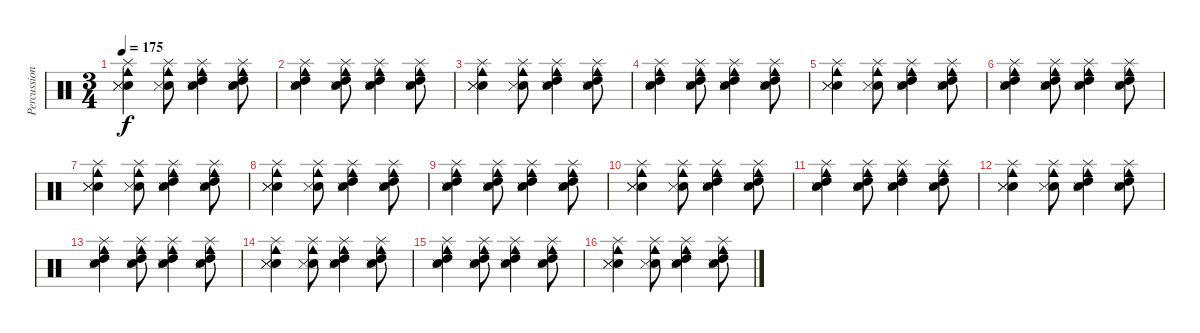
\track ("Percussion" "Percussion") {instrument percussion}
\staff {score}
\articulation defaults
\ts (3 4)
\tempo 175
\clef neutral
\ks c
("Snare (hit) 2" "Snare (side stick) 3" "Snare (side stick) 3" "Splash (hit)" "Cowbell medium (hit)").4{dy f} ("Snare (hit) 2" "Snare (side stick) 3" "Splash (hit)" "Cowbell medium (hit)").8 ("Snare (hit) 2" "Snare (side stick) 3" "High Tom (hit)" "Splash (hit)" "Cowbell medium (hit)").4 ("Snare (hit) 2" "Snare (side stick) 3" "High Tom (hit)" "Splash (hit)" "Cowbell medium (hit)").8 |
("Snare (hit) 2" "Snare (side stick) 3" "High Tom (hit)" "Splash (hit)" "Cowbell medium (hit)").4 ("Snare (hit) 2" "Snare (side stick) 3" "High Tom (hit)" "Splash (hit)" "Cowbell medium (hit)").8 ("Snare (hit) 2" "Snare (side stick) 3" "High Tom (hit)" "Splash (hit)" "Cowbell medium (hit)").4 ("Snare (hit) 2" "Snare (side stick) 3" "High Tom (hit)" "Splash (hit)" "Cowbell medium (hit)").8 |
("Snare (hit) 2" "Snare (side stick) 3" "Snare (side stick) 3" "Splash (hit)" "Cowbell medium (hit)").4 ("Snare (hit) 2" "Snare (side stick) 3" "Splash (hit)" "Cowbell medium (hit)").8 ("Snare (hit) 2" "Snare (side stick) 3" "High Tom (hit)" "Splash (hit)" "Cowbell medium (hit)").4 ("Snare (hit) 2" "Snare (side stick) 3" "High Tom (hit)" "Splash (hit)" "Cowbell medium (hit)").8 |
("Snare (hit) 2" "Snare (side stick) 3" "High Tom (hit)" "Splash (hit)" "Cowbell medium (hit)").4 ("Snare (hit) 2" "Snare (side stick) 3" "High Tom (hit)" "Splash (hit)" "Cowbell medium (hit)").8 ("Snare (hit) 2" "Snare (side stick) 3" "High Tom (hit)" "Splash (hit)" "Cowbell medium (hit)").4 ("Snare (hit) 2" "Snare (side stick) 3" "High Tom (hit)" "Splash (hit)" "Cowbell medium (hit)").8 |
("Snare (hit) 2" "Snare (side stick) 3" "Snare (side stick) 3" "Splash (hit)" "Cowbell medium (hit)").4 ("Snare (hit) 2" "Snare (side stick) 3" "Splash (hit)" "Cowbell medium (hit)").8 ("Snare (hit) 2" "Snare (side stick) 3" "High Tom (hit)" "Splash (hit)" "Cowbell medium (hit)").4 ("Snare (hit) 2" "Snare (side stick) 3" "High Tom (hit)" "Splash (hit)" "Cowbell medium (hit)").8 |
("Snare (hit) 2" "Snare (side stick) 3" "High Tom (hit)" "Splash (hit)" "Cowbell medium (hit)").4 ("Snare (hit) 2" "Snare (side stick) 3" "High Tom (hit)" "Splash (hit)" "Cowbell medium (hit)").8 ("Snare (hit) 2" "Snare (side stick) 3" "High Tom (hit)" "Splash (hit)" "Cowbell medium (hit)").4 ("Snare (hit) 2" "Snare (side stick) 3" "High Tom (hit)" "Splash (hit)" "Cowbell medium (hit)").8 |
("Snare (hit) 2" "Snare (side stick) 3" "Snare (side stick) 3" "Splash (hit)" "Cowbell medium (hit)").4 ("Snare (hit) 2" "Snare (side stick) 3" "Splash (hit)" "Cowbell medium (hit)").8 ("Snare (hit) 2" "Snare (side stick) 3" "High Tom (hit)" "Splash (hit)" "Cowbell medium (hit)").4 ("Snare (hit) 2" "Snare (side stick) 3" "High Tom (hit)" "Splash (hit)" "Cowbell medium (hit)").8 |
("Snare (hit) 2" "Snare (side stick) 3" "Snare (side stick) 3" "Splash (hit)" "Cowbell medium (hit)").4 ("Snare (hit) 2" "Snare (side stick) 3" "Splash (hit)" "Cowbell medium (hit)").8 ("Snare (hit) 2" "Snare (side stick) 3" "High Tom (hit)" "Splash (hit)" "Cowbell medium (hit)").4 ("Snare (hit) 2" "Snare (side stick) 3" "High Tom (hit)" "Splash (hit)" "Cowbell medium (hit)").8 |
("Snare (hit) 2" "Snare (side stick) 3" "High Tom (hit)" "Splash (hit)" "Cowbell medium (hit)").4 ("Snare (hit) 2" "Snare (side stick) 3" "High Tom (hit)" "Splash (hit)" "Cowbell medium (hit)").8 ("Snare (hit) 2" "Snare (side stick) 3" "High Tom (hit)" "Splash (hit)" "Cowbell medium (hit)").4 ("Snare (hit) 2" "Snare (side stick) 3" "High Tom (hit)" "Splash (hit)" "Cowbell medium (hit)").8 |
("Snare (hit) 2" "Snare (side stick) 3" "Snare (side stick) 3" "Splash (hit)" "Cowbell medium (hit)").4 ("Snare (hit) 2" "Snare (side stick) 3" "Splash (hit)" "Cowbell medium (hit)").8 ("Snare (hit) 2" "Snare (side stick) 3" "High Tom (hit)" "Splash (hit)" "Cowbell medium (hit)").4 ("Snare (hit) 2" "Snare (side stick) 3" "High Tom (hit)" "Splash (hit)" "Cowbell medium (hit)").8 |
("Snare (hit) 2" "Snare (side stick) 3" "High Tom (hit)" "Splash (hit)" "Cowbell medium (hit)").4 ("Snare (hit) 2" "Snare (side stick) 3" "High Tom (hit)" "Splash (hit)" "Cowbell medium (hit)").8 ("Snare (hit) 2" "Snare (side stick) 3" "High Tom (hit)" "Splash (hit)" "Cowbell medium (hit)").4 ("Snare (hit) 2" "Snare (side stick) 3" "High Tom (hit)" "Splash (hit)" "Cowbell medium (hit)").8 |
("Snare (hit) 2" "Snare (side stick) 3" "Snare (side stick) 3" "Splash (hit)" "Cowbell medium (hit)").4 ("Snare (hit) 2" "Snare (side stick) 3" "Splash (hit)" "Cowbell medium (hit)").8 ("Snare (hit) 2" "Snare (side stick) 3" "High Tom (hit)" "Splash (hit)" "Cowbell medium (hit)").4 ("Snare (hit) 2" "Snare (side stick) 3" "High Tom (hit)" "Splash (hit)" "Cowbell medium (hit)").8 |
("Snare (hit) 2" "Snare (side stick) 3" "High Tom (hit)" "Splash (hit)" "Cowbell medium (hit)").4 ("Snare (hit) 2" "Snare (side stick) 3" "High Tom (hit)" "Splash (hit)" "Cowbell medium (hit)").8 ("Snare (hit) 2" "Snare (side stick) 3" "High Tom (hit)" "Splash (hit)" "Cowbell medium (hit)").4 ("Snare (hit) 2" "Snare (side stick) 3" "High Tom (hit)" "Splash (hit)" "Cowbell medium (hit)").8 |
("Snare (hit) 2" "Snare (side stick) 3" "Snare (side stick) 3" "Splash (hit)" "Cowbell medium (hit)").4 ("Snare (hit) 2" "Snare (side stick) 3" "Splash (hit)" "Cowbell medium (hit)").8 ("Snare (hit) 2" "Snare (side stick) 3" "High Tom (hit)" "Splash (hit)" "Cowbell medium (hit)").4 ("Snare (hit) 2" "Snare (side stick) 3" "High Tom (hit)" "Splash (hit)" "Cowbell medium (hit)").8 |
("Snare (hit) 2" "Snare (side stick) 3" "High Tom (hit)" "Splash (hit)" "Cowbell medium (hit)").4 ("Snare (hit) 2" "Snare (side stick) 3" "High Tom (hit)" "Splash (hit)" "Cowbell medium (hit)").8 ("Snare (hit) 2" "Snare (side stick) 3" "High Tom (hit)" "Splash (hit)" "Cowbell medium (hit)").4 ("Snare (hit) 2" "Snare (side stick) 3" "High Tom (hit)" "Splash (hit)" "Cowbell medium (hit)").8 |
("Snare (hit) 2" "Snare (side stick) 3" "Snare (side stick) 3" "Splash (hit)" "Cowbell medium (hit)").4 ("Snare (hit) 2" "Snare (side stick) 3" "Splash (hit)" "Cowbell medium (hit)").8 ("Snare (hit) 2" "Snare (side stick) 3" "High Tom (hit)" "Splash (hit)" "Cowbell medium (hit)").4 ("Snare (hit) 2" "Snare (side stick) 3" "High Tom (hit)" "Splash (hit)" "Cowbell medium (hit)").8
